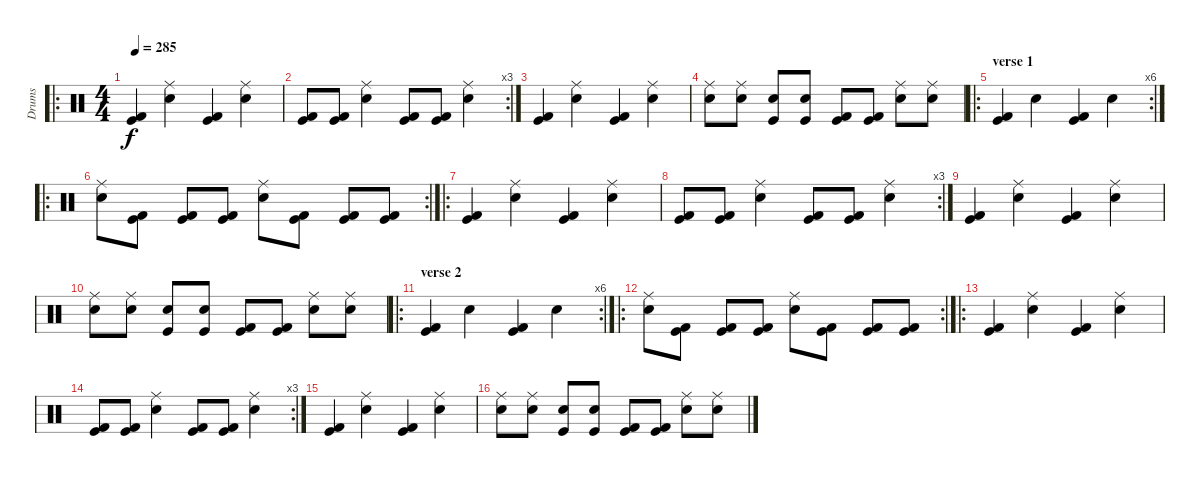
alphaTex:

\track ("Drums" "Drums") {instrument percussion}
\staff {score}
\articulation defaults
\ro
\ts (4 4)
\tempo 285
\clef neutral
\ks c
("Kick (hit)" "Kick (hit) 2").4{dy f} ("Ride (middle)" "Electric Snare (hit)").4 ("Kick (hit)" "Kick (hit) 2").4 ("Ride (middle)" "Electric Snare (hit)").4 |
\rc 3
("Kick (hit)" "Kick (hit) 2").8 ("Kick (hit)" "Kick (hit) 2").8 ("Ride (middle)" "Electric Snare (hit)").4 ("Kick (hit)" "Kick (hit) 2").8 ("Kick (hit)" "Kick (hit) 2").8 ("Ride (middle)" "Electric Snare (hit)").4 |
("Kick (hit)" "Kick (hit) 2").4 ("Ride (middle)" "Electric Snare (hit)").4 ("Kick (hit)" "Kick (hit) 2").4 ("Ride (middle)" "Electric Snare (hit)").4 |
("Ride (middle)" "Electric Snare (hit)").8 ("Ride (middle)" "Electric Snare (hit)").8 ("Kick (hit)" "Snare (hit) 2").8 ("Kick (hit)" "Snare (hit) 2").8 ("Kick (hit)" "Kick (hit) 2").8 ("Kick (hit)" "Kick (hit) 2").8 ("Ride (middle)" "Electric Snare (hit)").8 ("Ride (middle)" "Electric Snare (hit)").8 |
\ro
\rc 6
\section ("" "verse 1")
("Kick (hit)" "Kick (hit) 2").4 "Electric Snare (hit)".4 ("Kick (hit)" "Kick (hit) 2").4 "Electric Snare (hit)".4 |
\ro
\rc 2
("Ride (middle)" "Electric Snare (hit)").8 ("Kick (hit)" "Kick (hit) 2").8 ("Kick (hit)" "Kick (hit) 2").8 ("Kick (hit)" "Kick (hit) 2").8 ("Ride (middle)" "Electric Snare (hit)").8 ("Kick (hit)" "Kick (hit) 2").8 ("Kick (hit)" "Kick (hit) 2").8 ("Kick (hit)" "Kick (hit) 2").8 |
\ro
("Kick (hit)" "Kick (hit) 2").4 ("Ride (middle)" "Electric Snare (hit)").4 ("Kick (hit)" "Kick (hit) 2").4 ("Ride (middle)" "Electric Snare (hit)").4 |
\rc 3
("Kick (hit)" "Kick (hit) 2").8 ("Kick (hit)" "Kick (hit) 2").8 ("Ride (middle)" "Electric Snare (hit)").4 ("Kick (hit)" "Kick (hit) 2").8 ("Kick (hit)" "Kick (hit) 2").8 ("Ride (middle)" "Electric Snare (hit)").4 |
("Kick (hit)" "Kick (hit) 2").4 ("Ride (middle)" "Electric Snare (hit)").4 ("Kick (hit)" "Kick (hit) 2").4 ("Ride (middle)" "Electric Snare (hit)").4 |
("Ride (middle)" "Electric Snare (hit)").8 ("Ride (middle)" "Electric Snare (hit)").8 ("Kick (hit)" "Snare (hit) 2").8 ("Kick (hit)" "Snare (hit) 2").8 ("Kick (hit)" "Kick (hit) 2").8 ("Kick (hit)" "Kick (hit) 2").8 ("Ride (middle)" "Electric Snare (hit)").8 ("Ride (middle)" "Electric Snare (hit)").8 |
\ro
\rc 6
\section ("" "verse 2")
("Kick (hit)" "Kick (hit) 2").4 "Electric Snare (hit)".4 ("Kick (hit)" "Kick (hit) 2").4 "Electric Snare (hit)".4 |
\ro
\rc 2
("Ride (middle)" "Electric Snare (hit)").8 ("Kick (hit)" "Kick (hit) 2").8 ("Kick (hit)" "Kick (hit) 2").8 ("Kick (hit)" "Kick (hit) 2").8 ("Ride (middle)" "Electric Snare (hit)").8 ("Kick (hit)" "Kick (hit) 2").8 ("Kick (hit)" "Kick (hit) 2").8 ("Kick (hit)" "Kick (hit) 2").8 |
\ro
("Kick (hit)" "Kick (hit) 2").4 ("Ride (middle)" "Electric Snare (hit)").4 ("Kick (hit)" "Kick (hit) 2").4 ("Ride (middle)" "Electric Snare (hit)").4 |
\rc 3
("Kick (hit)" "Kick (hit) 2").8 ("Kick (hit)" "Kick (hit) 2").8 ("Ride (middle)" "Electric Snare (hit)").4 ("Kick (hit)" "Kick (hit) 2").8 ("Kick (hit)" "Kick (hit) 2").8 ("Ride (middle)" "Electric Snare (hit)").4 |
("Kick (hit)" "Kick (hit) 2").4 ("Ride (middle)" "Electric Snare (hit)").4 ("Kick (hit)" "Kick (hit) 2").4 ("Ride (middle)" "Electric Snare (hit)").4 |
("Ride (middle)" "Electric Snare (hit)").8 ("Ride (middle)" "Electric Snare (hit)").8 ("Kick (hit)" "Snare (hit) 2").8 ("Kick (hit)" "Snare (hit) 2").8 ("Kick (hit)" "Kick (hit) 2").8 ("Kick (hit)" "Kick (hit) 2").8 ("Ride (middle)" "Electric Snare (hit)").8 ("Ride (middle)" "Electric Snare (hit)").8
